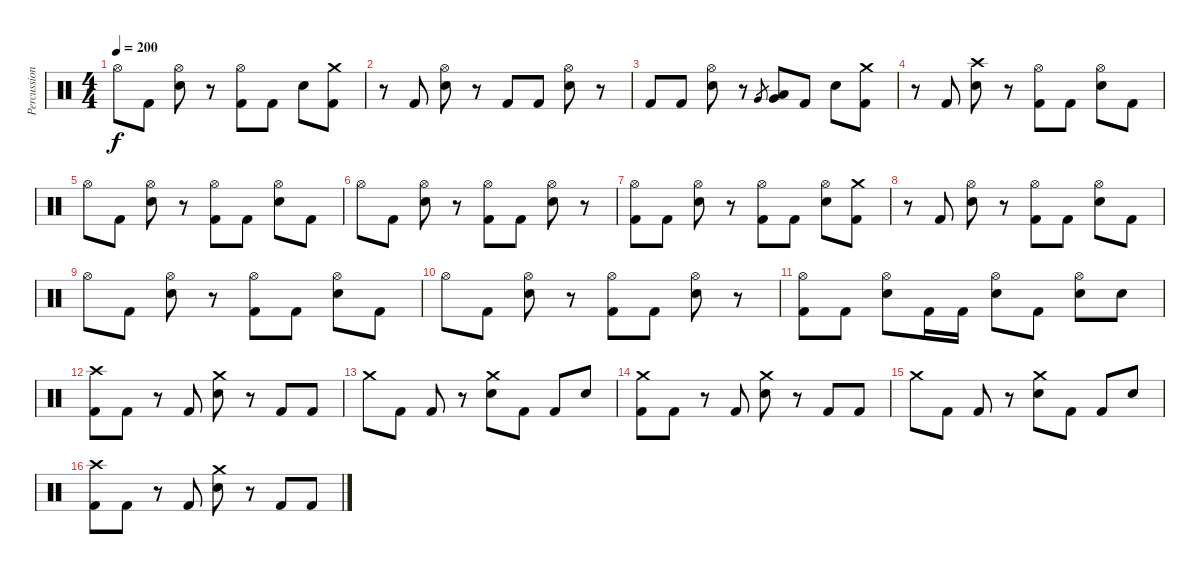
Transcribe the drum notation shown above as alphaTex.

\track ("Percussion" "Percussion") {instrument percussion}
\staff {score}
\articulation defaults
\ts (4 4)
\tempo 200
\clef neutral
\ks c "Hi-Hat (open)".8{dy f} "Kick (hit) 2".8
("Hi-Hat (open)" "Snare (hit) 2").8 r.8 ("Hi-Hat (open)" "Kick (hit) 2").8 "Kick (hit) 2".8 "Snare (hit) 2".8 ("Crash medium (hit)" "Kick (hit) 2").8 |
r.8 "Kick (hit) 2".8 ("Hi-Hat (open)" "Snare (hit) 2").8 r.8 "Kick (hit) 2".8 "Kick (hit) 2".8 ("Hi-Hat (open)" "Snare (hit) 2").8 r.8 |
"Kick (hit) 2".8 "Kick (hit) 2".8 ("Hi-Hat (open)" "Snare (hit) 2").8 r.8 "Very Low Tom (hit)".8{gr} ("Low Floor Tom (hit)" "Very Low Tom (hit)").8 "Kick (hit) 2".8 "Snare (hit) 2".8 ("Crash medium (hit)" "Kick (hit) 2").8 |
r.8 "Kick (hit) 2".8 ("Crash high (hit)" "Snare (hit) 2").8 r.8 ("Hi-Hat (open)" "Kick (hit) 2").8 "Kick (hit) 2".8 ("Hi-Hat (open)" "Snare (hit) 2").8 "Kick (hit) 2".8 |
"Hi-Hat (open)".8 "Kick (hit) 2".8 ("Hi-Hat (open)" "Snare (hit) 2").8 r.8 ("Hi-Hat (open)" "Kick (hit) 2").8 "Kick (hit) 2".8 ("Hi-Hat (open)" "Snare (hit) 2").8 "Kick (hit) 2".8 |
"Hi-Hat (open)".8 "Kick (hit) 2".8 ("Hi-Hat (open)" "Snare (hit) 2").8 r.8 ("Hi-Hat (open)" "Kick (hit) 2").8 "Kick (hit) 2".8 ("Hi-Hat (open)" "Snare (hit) 2").8 r.8 |
("Hi-Hat (open)" "Kick (hit) 2").8 "Kick (hit) 2".8 ("Hi-Hat (open)" "Snare (hit) 2").8 r.8 ("Hi-Hat (open)" "Kick (hit) 2").8 "Kick (hit) 2".8 ("Hi-Hat (open)" "Snare (hit) 2").8 ("Crash medium (hit)" "Kick (hit) 2").8 |
r.8 "Kick (hit) 2".8 ("Hi-Hat (open)" "Snare (hit) 2").8 r.8 ("Hi-Hat (open)" "Kick (hit) 2").8 "Kick (hit) 2".8 ("Hi-Hat (open)" "Snare (hit) 2").8 "Kick (hit) 2".8 |
"Hi-Hat (open)".8 "Kick (hit) 2".8 ("Hi-Hat (open)" "Snare (hit) 2").8 r.8 ("Hi-Hat (open)" "Kick (hit) 2").8 "Kick (hit) 2".8 ("Hi-Hat (open)" "Snare (hit) 2").8 "Kick (hit) 2".8 |
"Hi-Hat (open)".8 "Kick (hit) 2".8 ("Hi-Hat (open)" "Snare (hit) 2").8 r.8 ("Hi-Hat (open)" "Kick (hit) 2").8 "Kick (hit) 2".8 ("Hi-Hat (open)" "Snare (hit) 2").8 r.8 |
("Hi-Hat (open)" "Kick (hit) 2").8 "Kick (hit) 2".8 ("Hi-Hat (open)" "Snare (hit) 2").8 "Kick (hit) 2".16 "Kick (hit) 2".16 ("Hi-Hat (open)" "Snare (hit) 2").8 "Kick (hit) 2".8 ("Hi-Hat (open)" "Snare (hit) 2").8 "Snare (hit) 2".8 |
("Crash high (hit)" "Kick (hit) 2").8 "Kick (hit) 2".8 r.8 "Kick (hit) 2".8 ("Crash medium (hit)" "Snare (hit) 2").8 r.8 "Kick (hit) 2".8 "Kick (hit) 2".8 |
"Crash medium (hit)".8 "Kick (hit) 2".8 "Kick (hit) 2".8 r.8 ("Crash medium (hit)" "Snare (hit) 2").8 "Kick (hit) 2".8 "Kick (hit) 2".8 "Snare (hit) 2".8 |
("Crash medium (hit)" "Kick (hit) 2").8 "Kick (hit) 2".8 r.8 "Kick (hit) 2".8 ("Crash medium (hit)" "Snare (hit) 2").8 r.8 "Kick (hit) 2".8 "Kick (hit) 2".8 |
"Crash medium (hit)".8 "Kick (hit) 2".8 "Kick (hit) 2".8 r.8 ("Crash medium (hit)" "Snare (hit) 2").8 "Kick (hit) 2".8 "Kick (hit) 2".8 "Snare (hit) 2".8 |
("Crash high (hit)" "Kick (hit) 2").8 "Kick (hit) 2".8 r.8 "Kick (hit) 2".8 ("Crash medium (hit)" "Snare (hit) 2").8 r.8 "Kick (hit) 2".8 "Kick (hit) 2".8
